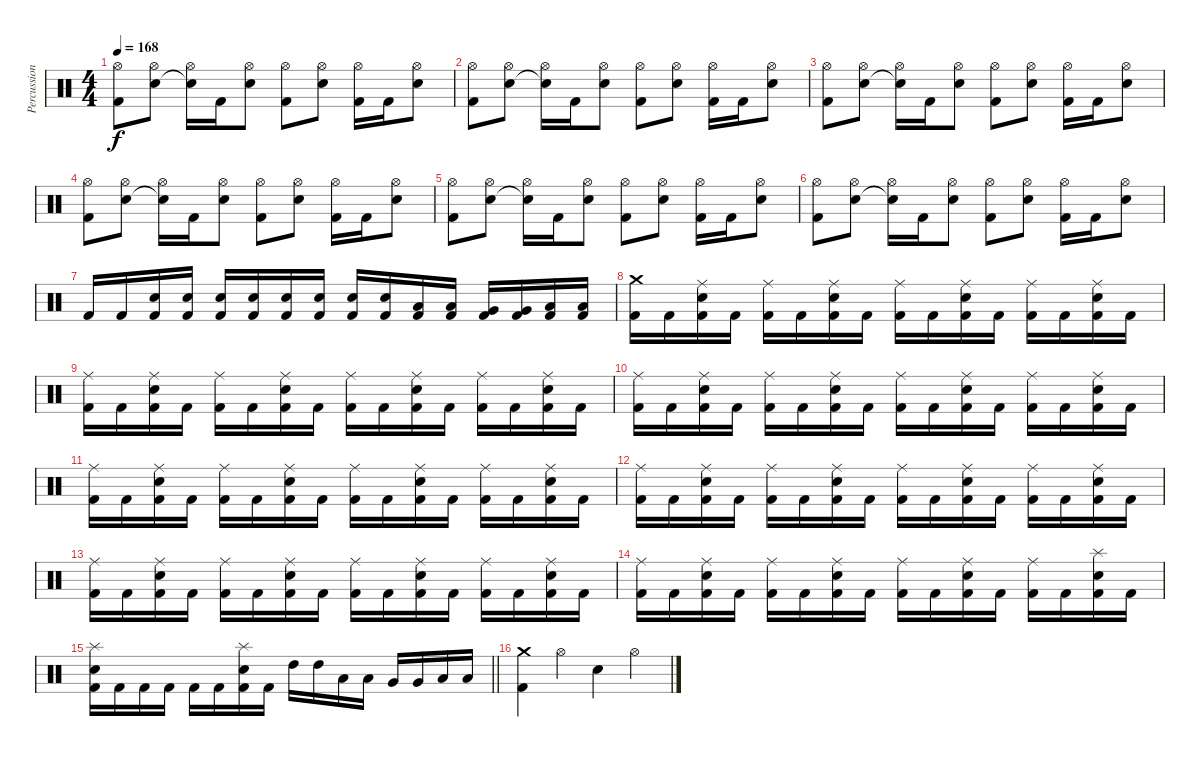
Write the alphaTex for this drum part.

\track ("Percussions" "Percussion") {instrument percussion}
\staff {score}
\articulation defaults
\ts (4 4)
\tempo 168
\clef neutral
\ks c
("Hi-Hat (open)" "Kick (hit) 2").8{dy f} ("Hi-Hat (open)" "Snare (hit) 2").8 ("Hi-Hat (open)" "Snare (hit) 2"{t}).16 "Kick (hit) 2".16 ("Hi-Hat (open)" "Snare (hit) 2").8 ("Hi-Hat (open)" "Kick (hit) 2").8 ("Hi-Hat (open)" "Snare (hit) 2").8 ("Hi-Hat (open)" "Kick (hit) 2").16 "Kick (hit) 2".16 ("Hi-Hat (open)" "Snare (hit) 2").8 |
("Hi-Hat (open)" "Kick (hit) 2").8 ("Hi-Hat (open)" "Snare (hit) 2").8 ("Hi-Hat (open)" "Snare (hit) 2"{t}).16 "Kick (hit) 2".16 ("Hi-Hat (open)" "Snare (hit) 2").8 ("Hi-Hat (open)" "Kick (hit) 2").8 ("Hi-Hat (open)" "Snare (hit) 2").8 ("Hi-Hat (open)" "Kick (hit) 2").16 "Kick (hit) 2".16 ("Hi-Hat (open)" "Snare (hit) 2").8 |
("Hi-Hat (open)" "Kick (hit) 2").8 ("Hi-Hat (open)" "Snare (hit) 2").8 ("Hi-Hat (open)" "Snare (hit) 2"{t}).16 "Kick (hit) 2".16 ("Hi-Hat (open)" "Snare (hit) 2").8 ("Hi-Hat (open)" "Kick (hit) 2").8 ("Hi-Hat (open)" "Snare (hit) 2").8 ("Hi-Hat (open)" "Kick (hit) 2").16 "Kick (hit) 2".16 ("Hi-Hat (open)" "Snare (hit) 2").8 |
("Hi-Hat (open)" "Kick (hit) 2").8 ("Hi-Hat (open)" "Snare (hit) 2").8 ("Hi-Hat (open)" "Snare (hit) 2"{t}).16 "Kick (hit) 2".16 ("Hi-Hat (open)" "Snare (hit) 2").8 ("Hi-Hat (open)" "Kick (hit) 2").8 ("Hi-Hat (open)" "Snare (hit) 2").8 ("Hi-Hat (open)" "Kick (hit) 2").16 "Kick (hit) 2".16 ("Hi-Hat (open)" "Snare (hit) 2").8 |
("Hi-Hat (open)" "Kick (hit) 2").8 ("Hi-Hat (open)" "Snare (hit) 2").8 ("Hi-Hat (open)" "Snare (hit) 2"{t}).16 "Kick (hit) 2".16 ("Hi-Hat (open)" "Snare (hit) 2").8 ("Hi-Hat (open)" "Kick (hit) 2").8 ("Hi-Hat (open)" "Snare (hit) 2").8 ("Hi-Hat (open)" "Kick (hit) 2").16 "Kick (hit) 2".16 ("Hi-Hat (open)" "Snare (hit) 2").8 |
("Hi-Hat (open)" "Kick (hit) 2").8 ("Hi-Hat (open)" "Snare (hit) 2").8 ("Hi-Hat (open)" "Snare (hit) 2"{t}).16 "Kick (hit) 2".16 ("Hi-Hat (open)" "Snare (hit) 2").8 ("Hi-Hat (open)" "Kick (hit) 2").8 ("Hi-Hat (open)" "Snare (hit) 2").8 ("Hi-Hat (open)" "Kick (hit) 2").16 "Kick (hit) 2".16 ("Hi-Hat (open)" "Snare (hit) 2").8 |
"Kick (hit) 2".16 "Kick (hit) 2".16 ("Snare (hit) 2" "Kick (hit) 2").16 ("Snare (hit) 2" "Kick (hit) 2").16 ("Snare (hit) 2" "Kick (hit) 2").16 ("Snare (hit) 2" "Kick (hit) 2").16 ("Snare (hit) 2" "Kick (hit) 2").16 ("Snare (hit) 2" "Kick (hit) 2").16 ("Snare (hit) 2" "Kick (hit) 2").16 ("Snare (hit) 2" "Kick (hit) 2").16 ("Low Tom (hit)" "Kick (hit) 2").16 ("Low Tom (hit)" "Kick (hit) 2").16 ("Very Low Tom (hit)" "Kick (hit) 2").16 ("Very Low Tom (hit)" "Kick (hit) 2").16 ("Low Floor Tom (hit)" "Kick (hit) 2").16 ("Low Floor Tom (hit)" "Kick (hit) 2").16 |
("Crash medium (hit)" "Kick (hit) 2").16 "Kick (hit) 2".16 ("Ride (middle)" "Snare (hit) 2" "Kick (hit) 2").16 "Kick (hit) 2".16 ("Ride (middle)" "Kick (hit) 2").16 "Kick (hit) 2".16 ("Ride (middle)" "Snare (hit) 2" "Kick (hit) 2").16 "Kick (hit) 2".16 ("Ride (middle)" "Kick (hit) 2").16 "Kick (hit) 2".16 ("Ride (middle)" "Snare (hit) 2" "Kick (hit) 2").16 "Kick (hit) 2".16 ("Ride (middle)" "Kick (hit) 2").16 "Kick (hit) 2".16 ("Ride (middle)" "Snare (hit) 2" "Kick (hit) 2").16 "Kick (hit) 2".16 |
("Ride (middle)" "Kick (hit) 2").16 "Kick (hit) 2".16 ("Ride (middle)" "Snare (hit) 2" "Kick (hit) 2").16 "Kick (hit) 2".16 ("Ride (middle)" "Kick (hit) 2").16 "Kick (hit) 2".16 ("Ride (middle)" "Snare (hit) 2" "Kick (hit) 2").16 "Kick (hit) 2".16 ("Ride (middle)" "Kick (hit) 2").16 "Kick (hit) 2".16 ("Ride (middle)" "Snare (hit) 2" "Kick (hit) 2").16 "Kick (hit) 2".16 ("Ride (middle)" "Kick (hit) 2").16 "Kick (hit) 2".16 ("Ride (middle)" "Snare (hit) 2" "Kick (hit) 2").16 "Kick (hit) 2".16 |
("Ride (middle)" "Kick (hit) 2").16 "Kick (hit) 2".16 ("Ride (middle)" "Snare (hit) 2" "Kick (hit) 2").16 "Kick (hit) 2".16 ("Ride (middle)" "Kick (hit) 2").16 "Kick (hit) 2".16 ("Ride (middle)" "Snare (hit) 2" "Kick (hit) 2").16 "Kick (hit) 2".16 ("Ride (middle)" "Kick (hit) 2").16 "Kick (hit) 2".16 ("Ride (middle)" "Snare (hit) 2" "Kick (hit) 2").16 "Kick (hit) 2".16 ("Ride (middle)" "Kick (hit) 2").16 "Kick (hit) 2".16 ("Ride (middle)" "Snare (hit) 2" "Kick (hit) 2").16 "Kick (hit) 2".16 |
("Ride (middle)" "Kick (hit) 2").16 "Kick (hit) 2".16 ("Ride (middle)" "Snare (hit) 2" "Kick (hit) 2").16 "Kick (hit) 2".16 ("Ride (middle)" "Kick (hit) 2").16 "Kick (hit) 2".16 ("Ride (middle)" "Snare (hit) 2" "Kick (hit) 2").16 "Kick (hit) 2".16 ("Ride (middle)" "Kick (hit) 2").16 "Kick (hit) 2".16 ("Ride (middle)" "Snare (hit) 2" "Kick (hit) 2").16 "Kick (hit) 2".16 ("Ride (middle)" "Kick (hit) 2").16 "Kick (hit) 2".16 ("Ride (middle)" "Snare (hit) 2" "Kick (hit) 2").16 "Kick (hit) 2".16 |
("Ride (middle)" "Kick (hit) 2").16 "Kick (hit) 2".16 ("Ride (middle)" "Snare (hit) 2" "Kick (hit) 2").16 "Kick (hit) 2".16 ("Ride (middle)" "Kick (hit) 2").16 "Kick (hit) 2".16 ("Ride (middle)" "Snare (hit) 2" "Kick (hit) 2").16 "Kick (hit) 2".16 ("Ride (middle)" "Kick (hit) 2").16 "Kick (hit) 2".16 ("Ride (middle)" "Snare (hit) 2" "Kick (hit) 2").16 "Kick (hit) 2".16 ("Ride (middle)" "Kick (hit) 2").16 "Kick (hit) 2".16 ("Ride (middle)" "Snare (hit) 2" "Kick (hit) 2").16 "Kick (hit) 2".16 |
("Ride (middle)" "Kick (hit) 2").16 "Kick (hit) 2".16 ("Ride (middle)" "Snare (hit) 2" "Kick (hit) 2").16 "Kick (hit) 2".16 ("Ride (middle)" "Kick (hit) 2").16 "Kick (hit) 2".16 ("Ride (middle)" "Snare (hit) 2" "Kick (hit) 2").16 "Kick (hit) 2".16 ("Ride (middle)" "Kick (hit) 2").16 "Kick (hit) 2".16 ("Ride (middle)" "Snare (hit) 2" "Kick (hit) 2").16 "Kick (hit) 2".16 ("Ride (middle)" "Kick (hit) 2").16 "Kick (hit) 2".16 ("Ride (middle)" "Snare (hit) 2" "Kick (hit) 2").16 "Kick (hit) 2".16 |
("Ride (middle)" "Kick (hit) 2").16 "Kick (hit) 2".16 ("Ride (middle)" "Snare (hit) 2" "Kick (hit) 2").16 "Kick (hit) 2".16 ("Ride (middle)" "Kick (hit) 2").16 "Kick (hit) 2".16 ("Ride (middle)" "Snare (hit) 2" "Kick (hit) 2").16 "Kick (hit) 2".16 ("Ride (middle)" "Kick (hit) 2").16 "Kick (hit) 2".16 ("Ride (middle)" "Snare (hit) 2" "Kick (hit) 2").16 "Kick (hit) 2".16 ("Ride (middle)" "Kick (hit) 2").16 "Kick (hit) 2".16 ("Splash (hit)" "Snare (hit) 2" "Kick (hit) 2").16 "Kick (hit) 2".16 |
\barLineRight lightlight
("Splash (hit)" "Snare (hit) 2" "Kick (hit) 2").16 "Kick (hit) 2".16 "Kick (hit) 2".16 "Kick (hit) 2".16 "Kick (hit) 2".16 "Kick (hit) 2".16 ("Splash (hit)" "Snare (hit) 2" "Kick (hit) 2").16 "Kick (hit) 2".16 "High Tom (hit)".16 "High Tom (hit)".16 "Low Tom (hit)".16 "Low Tom (hit)".16 "Very Low Tom (hit)".16 "Very Low Tom (hit)".16 "Low Floor Tom (hit)".16 "Low Floor Tom (hit)".16 |
("Crash medium (hit)" "Kick (hit) 2").4 "Hi-Hat (open)".4 "Snare (hit) 2".4 "Hi-Hat (open)".4
